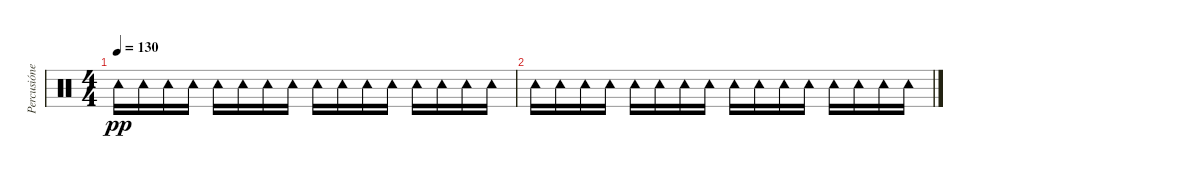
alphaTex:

\track ("Percusiónes" "Percusióne") {instrument percussion}
\staff {score}
\articulation defaults
\ts (4 4)
\tempo 130
\clef neutral
\ks c "Tambourine (hit)".16{dy pp} "Tambourine (hit)".16 "Tambourine (hit)".16 "Tambourine (hit)".16 "Tambourine (hit)".16 "Tambourine (hit)".16 "Tambourine (hit)".16 "Tambourine (hit)".16 "Tambourine (hit)".16 "Tambourine (hit)".16 "Tambourine (hit)".16 "Tambourine (hit)".16 "Tambourine (hit)".16 "Tambourine (hit)".16 "Tambourine (hit)".16 "Tambourine (hit)".16
|
"Tambourine (hit)".16 "Tambourine (hit)".16 "Tambourine (hit)".16 "Tambourine (hit)".16 "Tambourine (hit)".16 "Tambourine (hit)".16 "Tambourine (hit)".16 "Tambourine (hit)".16 "Tambourine (hit)".16 "Tambourine (hit)".16 "Tambourine (hit)".16 "Tambourine (hit)".16 "Tambourine (hit)".16 "Tambourine (hit)".16 "Tambourine (hit)".16 "Tambourine (hit)".16
